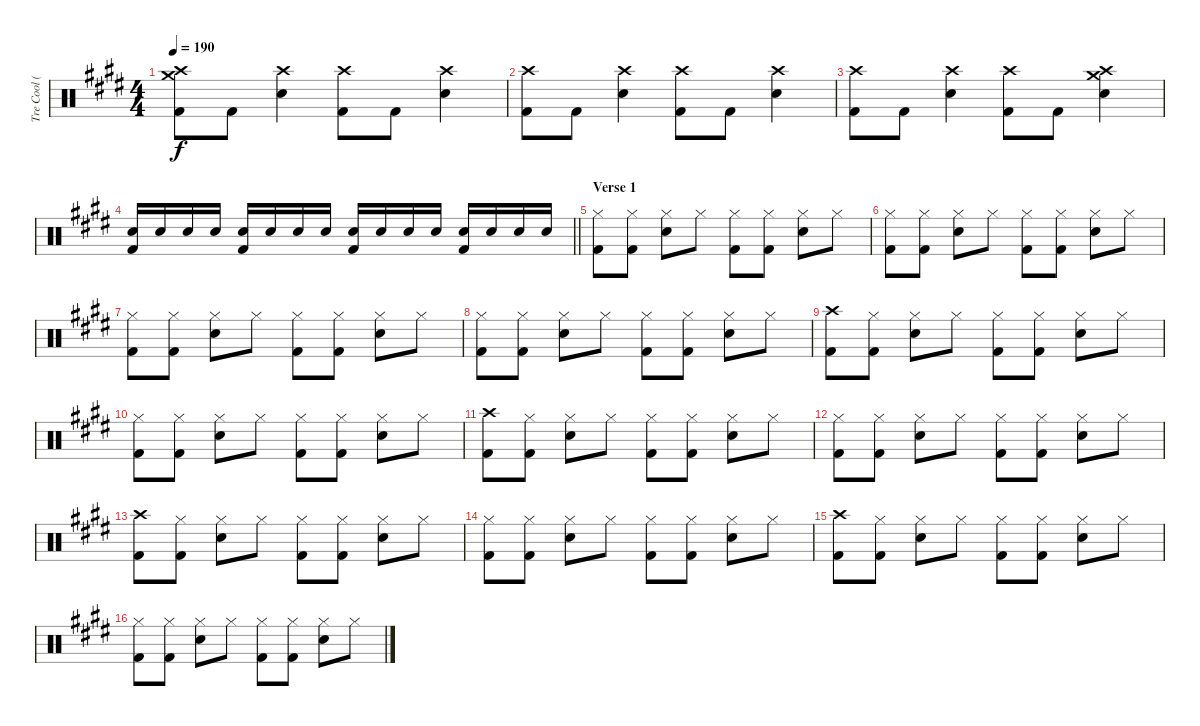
\track ("Tre Cool (Drums)" "Tre Cool (") {instrument percussion}
\staff {score}
\articulation defaults
\ts (4 4)
\tempo 190
\clef neutral
\ks e
("Kick (hit) 2" "Crash medium (hit)" "Crash high (hit)").8{dy f} "Kick (hit) 2".8 ("Electric Snare (hit)" "Crash high (hit)").4 ("Kick (hit) 2" "Crash high (hit)").8 "Kick (hit) 2".8 ("Electric Snare (hit)" "Crash high (hit)").4 |
("Kick (hit) 2" "Crash high (hit)").8 "Kick (hit) 2".8 ("Electric Snare (hit)" "Crash high (hit)").4 ("Kick (hit) 2" "Crash high (hit)").8 "Kick (hit) 2".8 ("Electric Snare (hit)" "Crash high (hit)").4 |
("Kick (hit) 2" "Crash high (hit)").8 "Kick (hit) 2".8 ("Electric Snare (hit)" "Crash high (hit)").4 ("Kick (hit) 2" "Crash high (hit)").8 "Kick (hit) 2".8 ("Electric Snare (hit)" "Crash medium (hit)" "Crash high (hit)").4 |
\barLineRight lightlight
("Kick (hit) 2" "Electric Snare (hit)").16 "Electric Snare (hit)".16 "Electric Snare (hit)".16 "Electric Snare (hit)".16 ("Kick (hit) 2" "Electric Snare (hit)").16 "Electric Snare (hit)".16 "Electric Snare (hit)".16 "Electric Snare (hit)".16 ("Kick (hit) 2" "Electric Snare (hit)").16 "Electric Snare (hit)".16 "Electric Snare (hit)".16 "Electric Snare (hit)".16 ("Kick (hit) 2" "Electric Snare (hit)").16 "Electric Snare (hit)".16 "Electric Snare (hit)".16 "Electric Snare (hit)".16 |
\section ("" "Verse 1")
("Hi-Hat (closed)" "Kick (hit) 2").8 ("Hi-Hat (closed)" "Kick (hit) 2").8 ("Hi-Hat (closed)" "Electric Snare (hit)").8 "Hi-Hat (closed)".8 ("Hi-Hat (closed)" "Kick (hit) 2").8 ("Hi-Hat (closed)" "Kick (hit) 2").8 ("Hi-Hat (closed)" "Electric Snare (hit)").8 "Hi-Hat (closed)".8 |
("Hi-Hat (closed)" "Kick (hit) 2").8 ("Hi-Hat (closed)" "Kick (hit) 2").8 ("Hi-Hat (closed)" "Electric Snare (hit)").8 "Hi-Hat (closed)".8 ("Hi-Hat (closed)" "Kick (hit) 2").8 ("Hi-Hat (closed)" "Kick (hit) 2").8 ("Hi-Hat (closed)" "Electric Snare (hit)").8 "Hi-Hat (closed)".8 |
("Hi-Hat (closed)" "Kick (hit) 2").8 ("Hi-Hat (closed)" "Kick (hit) 2").8 ("Hi-Hat (closed)" "Electric Snare (hit)").8 "Hi-Hat (closed)".8 ("Hi-Hat (closed)" "Kick (hit) 2").8 ("Hi-Hat (closed)" "Kick (hit) 2").8 ("Hi-Hat (closed)" "Electric Snare (hit)").8 "Hi-Hat (closed)".8 |
("Hi-Hat (closed)" "Kick (hit) 2").8 ("Hi-Hat (closed)" "Kick (hit) 2").8 ("Hi-Hat (closed)" "Electric Snare (hit)").8 "Hi-Hat (closed)".8 ("Hi-Hat (closed)" "Kick (hit) 2").8 ("Hi-Hat (closed)" "Kick (hit) 2").8 ("Hi-Hat (closed)" "Electric Snare (hit)").8 "Hi-Hat (closed)".8 |
("Crash high (hit)" "Kick (hit) 2").8 ("Hi-Hat (closed)" "Kick (hit) 2").8 ("Hi-Hat (closed)" "Electric Snare (hit)").8 "Hi-Hat (closed)".8 ("Hi-Hat (closed)" "Kick (hit) 2").8 ("Hi-Hat (closed)" "Kick (hit) 2").8 ("Hi-Hat (closed)" "Electric Snare (hit)").8 "Hi-Hat (closed)".8 |
("Hi-Hat (closed)" "Kick (hit) 2").8 ("Hi-Hat (closed)" "Kick (hit) 2").8 ("Hi-Hat (closed)" "Electric Snare (hit)").8 "Hi-Hat (closed)".8 ("Hi-Hat (closed)" "Kick (hit) 2").8 ("Hi-Hat (closed)" "Kick (hit) 2").8 ("Hi-Hat (closed)" "Electric Snare (hit)").8 "Hi-Hat (closed)".8 |
("Crash high (hit)" "Kick (hit) 2").8 ("Hi-Hat (closed)" "Kick (hit) 2").8 ("Hi-Hat (closed)" "Electric Snare (hit)").8 "Hi-Hat (closed)".8 ("Hi-Hat (closed)" "Kick (hit) 2").8 ("Hi-Hat (closed)" "Kick (hit) 2").8 ("Hi-Hat (closed)" "Electric Snare (hit)").8 "Hi-Hat (closed)".8 |
("Hi-Hat (closed)" "Kick (hit) 2").8 ("Hi-Hat (closed)" "Kick (hit) 2").8 ("Hi-Hat (closed)" "Electric Snare (hit)").8 "Hi-Hat (closed)".8 ("Hi-Hat (closed)" "Kick (hit) 2").8 ("Hi-Hat (closed)" "Kick (hit) 2").8 ("Hi-Hat (closed)" "Electric Snare (hit)").8 "Hi-Hat (closed)".8 |
("Crash high (hit)" "Kick (hit) 2").8 ("Hi-Hat (closed)" "Kick (hit) 2").8 ("Hi-Hat (closed)" "Electric Snare (hit)").8 "Hi-Hat (closed)".8 ("Hi-Hat (closed)" "Kick (hit) 2").8 ("Hi-Hat (closed)" "Kick (hit) 2").8 ("Hi-Hat (closed)" "Electric Snare (hit)").8 "Hi-Hat (closed)".8 |
("Hi-Hat (closed)" "Kick (hit) 2").8 ("Hi-Hat (closed)" "Kick (hit) 2").8 ("Hi-Hat (closed)" "Electric Snare (hit)").8 "Hi-Hat (closed)".8 ("Hi-Hat (closed)" "Kick (hit) 2").8 ("Hi-Hat (closed)" "Kick (hit) 2").8 ("Hi-Hat (closed)" "Electric Snare (hit)").8 "Hi-Hat (closed)".8 |
("Crash high (hit)" "Kick (hit) 2").8 ("Hi-Hat (closed)" "Kick (hit) 2").8 ("Hi-Hat (closed)" "Electric Snare (hit)").8 "Hi-Hat (closed)".8 ("Hi-Hat (closed)" "Kick (hit) 2").8 ("Hi-Hat (closed)" "Kick (hit) 2").8 ("Hi-Hat (closed)" "Electric Snare (hit)").8 "Hi-Hat (closed)".8 |
("Hi-Hat (closed)" "Kick (hit) 2").8 ("Hi-Hat (closed)" "Kick (hit) 2").8 ("Hi-Hat (closed)" "Electric Snare (hit)").8 "Hi-Hat (closed)".8 ("Hi-Hat (closed)" "Kick (hit) 2").8 ("Hi-Hat (closed)" "Kick (hit) 2").8 ("Hi-Hat (closed)" "Electric Snare (hit)").8 "Hi-Hat (closed)".8
